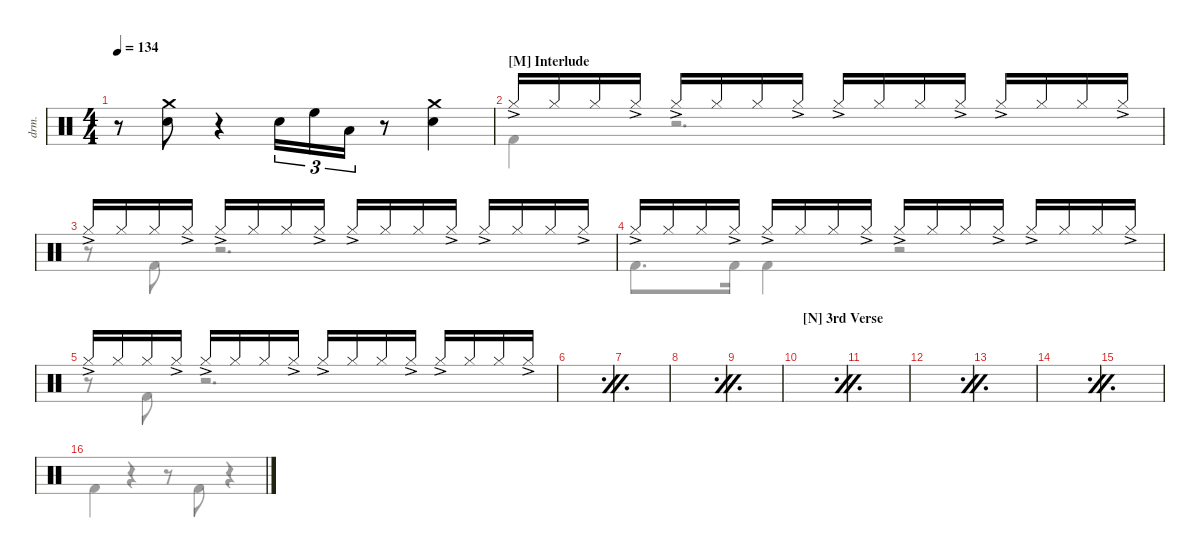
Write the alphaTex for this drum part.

\defaultSystemsLayout 4
\hideDynamics
\bracketExtendMode nobrackets
\track ("Drums" "drm.") {instrument percussion}
\staff {score}
\articulation defaults
\voice
\ts (4 4)
\tempo 134
\clef neutral
\ks c
r.8{dy mf} ("Crash medium (hit)" "Snare (hit) 2").8 r.4 "Snare (hit) 2".16{tu (3 2)} "High Floor Tom (hit)".16{tu (3 2)} "Low Tom (hit)".16{tu (3 2)} r.8 ("Snare (hit) 2" "Crash medium (hit)").4 |
\section ("M" "Interlude")
"Hi-Hat (closed)"{ac}.16 "Hi-Hat (closed)".16 "Hi-Hat (closed)".16 "Hi-Hat (closed)"{ac}.16 "Hi-Hat (closed)"{ac}.16 "Hi-Hat (closed)".16 "Hi-Hat (closed)".16 "Hi-Hat (closed)"{ac}.16 "Hi-Hat (closed)"{ac}.16 "Hi-Hat (closed)".16 "Hi-Hat (closed)".16 "Hi-Hat (closed)"{ac}.16 "Hi-Hat (closed)"{ac}.16 "Hi-Hat (closed)".16 "Hi-Hat (closed)".16 "Hi-Hat (closed)"{ac}.16 |
"Hi-Hat (closed)"{ac}.16 "Hi-Hat (closed)".16 "Hi-Hat (closed)".16 "Hi-Hat (closed)"{ac}.16 "Hi-Hat (closed)"{ac}.16 "Hi-Hat (closed)".16 "Hi-Hat (closed)".16 "Hi-Hat (closed)"{ac}.16 "Hi-Hat (closed)"{ac}.16 "Hi-Hat (closed)".16 "Hi-Hat (closed)".16 "Hi-Hat (closed)"{ac}.16 "Hi-Hat (closed)"{ac}.16 "Hi-Hat (closed)".16 "Hi-Hat (closed)".16 "Hi-Hat (closed)"{ac}.16 |
"Hi-Hat (closed)"{ac}.16 "Hi-Hat (closed)".16 "Hi-Hat (closed)".16 "Hi-Hat (closed)"{ac}.16 "Hi-Hat (closed)"{ac}.16 "Hi-Hat (closed)".16 "Hi-Hat (closed)".16 "Hi-Hat (closed)"{ac}.16 "Hi-Hat (closed)"{ac}.16 "Hi-Hat (closed)".16 "Hi-Hat (closed)".16 "Hi-Hat (closed)"{ac}.16 "Hi-Hat (closed)"{ac}.16 "Hi-Hat (closed)".16 "Hi-Hat (closed)".16 "Hi-Hat (closed)"{ac}.16 |
"Hi-Hat (closed)"{ac}.16 "Hi-Hat (closed)".16 "Hi-Hat (closed)".16 "Hi-Hat (closed)"{ac}.16 "Hi-Hat (closed)"{ac}.16 "Hi-Hat (closed)".16 "Hi-Hat (closed)".16 "Hi-Hat (closed)"{ac}.16 "Hi-Hat (closed)"{ac}.16 "Hi-Hat (closed)".16 "Hi-Hat (closed)".16 "Hi-Hat (closed)"{ac}.16 "Hi-Hat (closed)"{ac}.16 "Hi-Hat (closed)".16 "Hi-Hat (closed)".16 "Hi-Hat (closed)"{ac}.16 |
\simile firstofdouble
|
\simile secondofdouble
|
\simile firstofdouble
|
\simile secondofdouble
|
\section ("N" "3rd Verse")
\simile firstofdouble
|
\simile secondofdouble
|
\simile firstofdouble
|
\simile secondofdouble
|
\simile firstofdouble
|
\simile secondofdouble
|
\simile firstofdouble
\voice
\clef neutral
\ottava regular
\simile none
\ks c "Kick (hit) 2".4{dy mf}
r.4 r.8 "Kick (hit) 2".8 r.4 |
"Kick (hit) 2".4 r.2{d} |
r.8 "Kick (hit) 2".8 r.2{d} |
"Kick (hit) 2".8{d} "Kick (hit) 2".16 "Kick (hit) 2".4 r.2 |
r.8 "Kick (hit) 2".8 r.2{d} |
\simile firstofdouble
|
\simile secondofdouble
|
\simile firstofdouble
|
\simile secondofdouble
|
\simile firstofdouble
|
\simile secondofdouble
|
\simile firstofdouble
|
\simile secondofdouble
|
\simile firstofdouble
|
\simile secondofdouble
|
\simile firstofdouble
